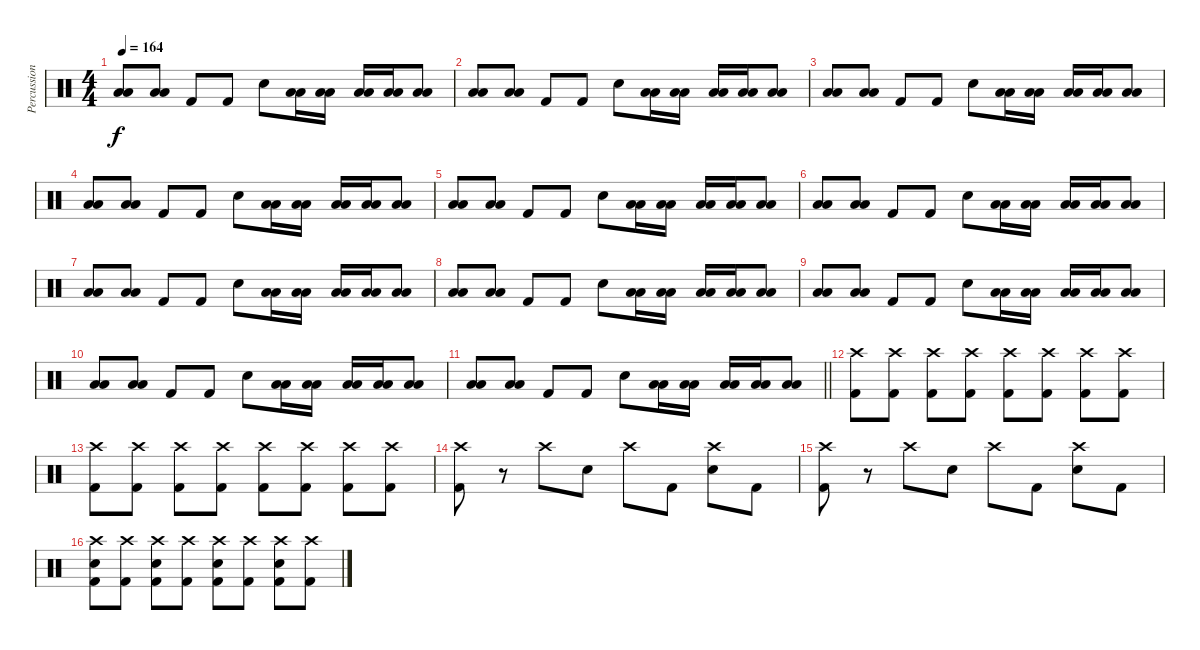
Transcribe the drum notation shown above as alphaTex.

\track ("Percussion" "Percussion") {instrument percussion}
\staff {score}
\articulation defaults
\ts (4 4)
\tempo 164
\clef neutral
\ks c
("Low Floor Tom (hit)" "Low Tom (hit)").8{dy f} ("Low Floor Tom (hit)" "Low Tom (hit)").8 "Kick (hit) 2".8 "Kick (hit) 2".8 "Snare (hit) 2".8 ("Low Tom (hit)" "Low Tom (hit)").16 ("Low Tom (hit)" "Low Tom (hit)").16 ("Low Floor Tom (hit)" "Low Floor Tom (hit)").16 ("Low Floor Tom (hit)" "Low Floor Tom (hit)").16 ("Low Floor Tom (hit)" "Low Floor Tom (hit)").8 |
("Low Floor Tom (hit)" "Low Tom (hit)").8 ("Low Floor Tom (hit)" "Low Tom (hit)").8 "Kick (hit) 2".8 "Kick (hit) 2".8 "Snare (hit) 2".8 ("Low Tom (hit)" "Low Tom (hit)").16 ("Low Tom (hit)" "Low Tom (hit)").16 ("Low Floor Tom (hit)" "Low Floor Tom (hit)").16 ("Low Floor Tom (hit)" "Low Floor Tom (hit)").16 ("Low Floor Tom (hit)" "Low Floor Tom (hit)").8 |
("Low Floor Tom (hit)" "Low Tom (hit)").8 ("Low Floor Tom (hit)" "Low Tom (hit)").8 "Kick (hit) 2".8 "Kick (hit) 2".8 "Snare (hit) 2".8 ("Low Tom (hit)" "Low Tom (hit)").16 ("Low Tom (hit)" "Low Tom (hit)").16 ("Low Floor Tom (hit)" "Low Floor Tom (hit)").16 ("Low Floor Tom (hit)" "Low Floor Tom (hit)").16 ("Low Floor Tom (hit)" "Low Floor Tom (hit)").8 |
("Low Floor Tom (hit)" "Low Tom (hit)").8 ("Low Floor Tom (hit)" "Low Tom (hit)").8 "Kick (hit) 2".8 "Kick (hit) 2".8 "Snare (hit) 2".8 ("Low Tom (hit)" "Low Tom (hit)").16 ("Low Tom (hit)" "Low Tom (hit)").16 ("Low Floor Tom (hit)" "Low Floor Tom (hit)").16 ("Low Floor Tom (hit)" "Low Floor Tom (hit)").16 ("Low Floor Tom (hit)" "Low Floor Tom (hit)").8 |
("Low Floor Tom (hit)" "Low Tom (hit)").8 ("Low Floor Tom (hit)" "Low Tom (hit)").8 "Kick (hit) 2".8 "Kick (hit) 2".8 "Snare (hit) 2".8 ("Low Tom (hit)" "Low Tom (hit)").16 ("Low Tom (hit)" "Low Tom (hit)").16 ("Low Floor Tom (hit)" "Low Floor Tom (hit)").16 ("Low Floor Tom (hit)" "Low Floor Tom (hit)").16 ("Low Floor Tom (hit)" "Low Floor Tom (hit)").8 |
("Low Floor Tom (hit)" "Low Tom (hit)").8 ("Low Floor Tom (hit)" "Low Tom (hit)").8 "Kick (hit) 2".8 "Kick (hit) 2".8 "Snare (hit) 2".8 ("Low Tom (hit)" "Low Tom (hit)").16 ("Low Tom (hit)" "Low Tom (hit)").16 ("Low Floor Tom (hit)" "Low Floor Tom (hit)").16 ("Low Floor Tom (hit)" "Low Floor Tom (hit)").16 ("Low Floor Tom (hit)" "Low Floor Tom (hit)").8 |
("Low Floor Tom (hit)" "Low Tom (hit)").8 ("Low Floor Tom (hit)" "Low Tom (hit)").8 "Kick (hit) 2".8 "Kick (hit) 2".8 "Snare (hit) 2".8 ("Low Tom (hit)" "Low Tom (hit)").16 ("Low Tom (hit)" "Low Tom (hit)").16 ("Low Floor Tom (hit)" "Low Floor Tom (hit)").16 ("Low Floor Tom (hit)" "Low Floor Tom (hit)").16 ("Low Floor Tom (hit)" "Low Floor Tom (hit)").8 |
("Low Floor Tom (hit)" "Low Tom (hit)").8 ("Low Floor Tom (hit)" "Low Tom (hit)").8 "Kick (hit) 2".8 "Kick (hit) 2".8 "Snare (hit) 2".8 ("Low Tom (hit)" "Low Tom (hit)").16 ("Low Tom (hit)" "Low Tom (hit)").16 ("Low Floor Tom (hit)" "Low Floor Tom (hit)").16 ("Low Floor Tom (hit)" "Low Floor Tom (hit)").16 ("Low Floor Tom (hit)" "Low Floor Tom (hit)").8 |
("Low Floor Tom (hit)" "Low Tom (hit)").8 ("Low Floor Tom (hit)" "Low Tom (hit)").8 "Kick (hit) 2".8 "Kick (hit) 2".8 "Snare (hit) 2".8 ("Low Tom (hit)" "Low Tom (hit)").16 ("Low Tom (hit)" "Low Tom (hit)").16 ("Low Floor Tom (hit)" "Low Floor Tom (hit)").16 ("Low Floor Tom (hit)" "Low Floor Tom (hit)").16 ("Low Floor Tom (hit)" "Low Floor Tom (hit)").8 |
("Low Floor Tom (hit)" "Low Tom (hit)").8 ("Low Floor Tom (hit)" "Low Tom (hit)").8 "Kick (hit) 2".8 "Kick (hit) 2".8 "Snare (hit) 2".8 ("Low Tom (hit)" "Low Tom (hit)").16 ("Low Tom (hit)" "Low Tom (hit)").16 ("Low Floor Tom (hit)" "Low Floor Tom (hit)").16 ("Low Floor Tom (hit)" "Low Floor Tom (hit)").16 ("Low Floor Tom (hit)" "Low Floor Tom (hit)").8 |
\barLineRight lightlight
("Low Floor Tom (hit)" "Low Tom (hit)").8 ("Low Floor Tom (hit)" "Low Tom (hit)").8 "Kick (hit) 2".8 "Kick (hit) 2".8 "Snare (hit) 2".8 ("Low Tom (hit)" "Low Tom (hit)").16 ("Low Tom (hit)" "Low Tom (hit)").16 ("Low Floor Tom (hit)" "Low Floor Tom (hit)").16 ("Low Floor Tom (hit)" "Low Floor Tom (hit)").16 ("Low Floor Tom (hit)" "Low Floor Tom (hit)").8 |
\section ("" "")
("Kick (hit) 2" "Crash high (hit)").8 ("Kick (hit) 2" "Crash high (hit)").8 ("Kick (hit) 2" "Crash high (hit)").8 ("Kick (hit) 2" "Crash high (hit)").8 ("Kick (hit) 2" "Crash high (hit)").8 ("Kick (hit) 2" "Crash high (hit)").8 ("Kick (hit) 2" "Crash high (hit)").8 ("Kick (hit) 2" "Crash high (hit)").8 |
("Kick (hit) 2" "Crash high (hit)").8 ("Kick (hit) 2" "Crash high (hit)").8 ("Kick (hit) 2" "Crash high (hit)").8 ("Kick (hit) 2" "Crash high (hit)").8 ("Kick (hit) 2" "Crash high (hit)").8 ("Kick (hit) 2" "Crash high (hit)").8 ("Kick (hit) 2" "Crash high (hit)").8 ("Kick (hit) 2" "Crash high (hit)").8 |
("Kick (hit) 2" "Crash high (hit)").8 r.8 "Crash high (hit)".8 "Snare (hit) 2".8 "Crash high (hit)".8 "Kick (hit) 2".8 ("Crash high (hit)" "Snare (hit) 2").8 "Kick (hit) 2".8 |
("Kick (hit) 2" "Crash high (hit)").8 r.8 "Crash high (hit)".8 "Snare (hit) 2".8 "Crash high (hit)".8 "Kick (hit) 2".8 ("Crash high (hit)" "Snare (hit) 2").8 "Kick (hit) 2".8 |
("Kick (hit) 2" "Crash high (hit)" "Snare (hit) 2").8 ("Kick (hit) 2" "Crash high (hit)").8 ("Kick (hit) 2" "Crash high (hit)" "Snare (hit) 2").8 ("Kick (hit) 2" "Crash high (hit)").8 ("Kick (hit) 2" "Crash high (hit)" "Snare (hit) 2").8 ("Kick (hit) 2" "Crash high (hit)").8 ("Kick (hit) 2" "Crash high (hit)" "Snare (hit) 2").8 ("Kick (hit) 2" "Crash high (hit)").8
